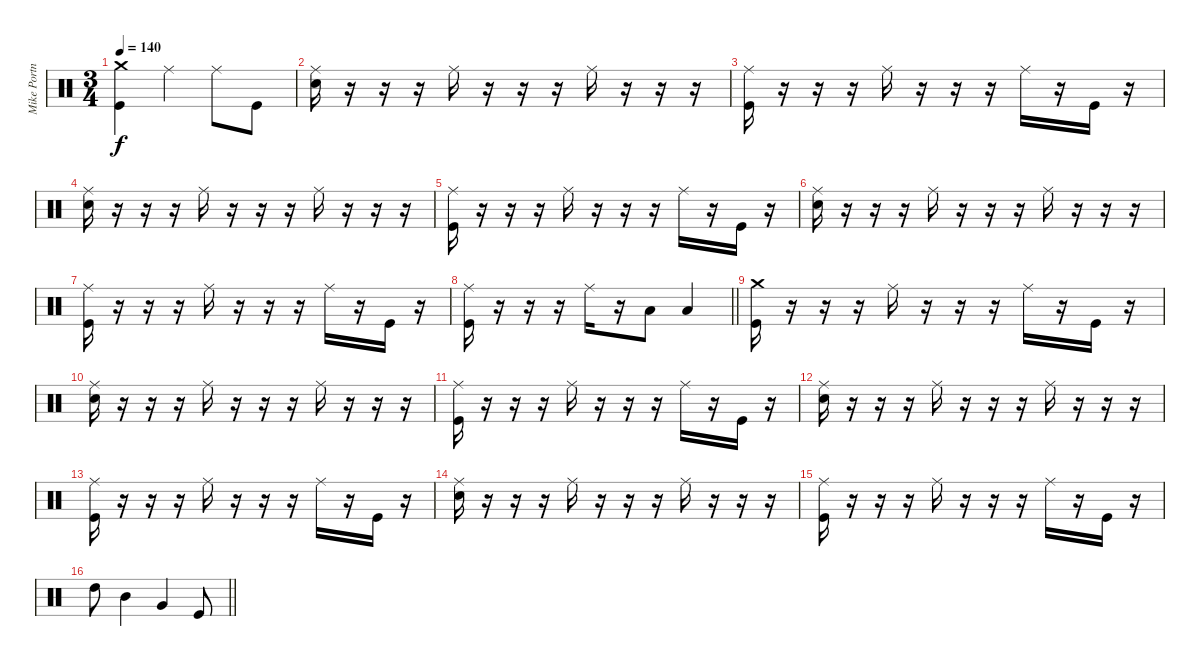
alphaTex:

\track ("Mike Portnoy" "Mike Portn") {instrument percussion}
\staff {score}
\articulation defaults
\ts (3 4)
\tempo 140
\clef neutral
\ks c
("Kick (hit)" "Crash medium (hit)").4{dy f} "Ride (middle)".4 "Ride (middle)".8 "Kick (hit)".8 |
("Electric Snare (hit)" "Ride (middle)").16 r.16 r.16 r.16 "Ride (middle)".16 r.16 r.16 r.16 "Ride (middle)".16 r.16 r.16 r.16 |
("Kick (hit)" "Ride (middle)").16 r.16 r.16 r.16 "Ride (middle)".16 r.16 r.16 r.16 "Ride (middle)".16 r.16 "Kick (hit)".16 r.16 |
("Electric Snare (hit)" "Ride (middle)").16 r.16 r.16 r.16 "Ride (middle)".16 r.16 r.16 r.16 "Ride (middle)".16 r.16 r.16 r.16 |
("Kick (hit)" "Ride (middle)").16 r.16 r.16 r.16 "Ride (middle)".16 r.16 r.16 r.16 "Ride (middle)".16 r.16 "Kick (hit)".16 r.16 |
("Electric Snare (hit)" "Ride (middle)").16 r.16 r.16 r.16 "Ride (middle)".16 r.16 r.16 r.16 "Ride (middle)".16 r.16 r.16 r.16 |
("Kick (hit)" "Ride (middle)").16 r.16 r.16 r.16 "Ride (middle)".16 r.16 r.16 r.16 "Ride (middle)".16 r.16 "Kick (hit)".16 r.16 |
\barLineRight lightlight
("Kick (hit)" "Ride (middle)").16 r.16 r.16 r.16 "Ride (middle)".16 r.16 "Low Floor Tom (hit)".8 "Low Floor Tom (hit)".4 |
("Kick (hit)" "Crash medium (hit)").16 r.16 r.16 r.16 "Ride (middle)".16 r.16 r.16 r.16 "Ride (middle)".16 r.16 "Kick (hit)".16 r.16 |
("Electric Snare (hit)" "Ride (middle)").16 r.16 r.16 r.16 "Ride (middle)".16 r.16 r.16 r.16 "Ride (middle)".16 r.16 r.16 r.16 |
("Kick (hit)" "Ride (middle)").16 r.16 r.16 r.16 "Ride (middle)".16 r.16 r.16 r.16 "Ride (middle)".16 r.16 "Kick (hit)".16 r.16 |
("Electric Snare (hit)" "Ride (middle)").16 r.16 r.16 r.16 "Ride (middle)".16 r.16 r.16 r.16 "Ride (middle)".16 r.16 r.16 r.16 |
("Kick (hit)" "Ride (middle)").16 r.16 r.16 r.16 "Ride (middle)".16 r.16 r.16 r.16 "Ride (middle)".16 r.16 "Kick (hit)".16 r.16 |
("Electric Snare (hit)" "Ride (middle)").16 r.16 r.16 r.16 "Ride (middle)".16 r.16 r.16 r.16 "Ride (middle)".16 r.16 r.16 r.16 |
("Kick (hit)" "Ride (middle)").16 r.16 r.16 r.16 "Ride (middle)".16 r.16 r.16 r.16 "Ride (middle)".16 r.16 "Kick (hit)".16 r.16 |
\barLineRight lightlight "High Tom (hit)".8 "Mid Tom (hit)".4 "Very Low Tom (hit)".4 "Kick (hit)".8
